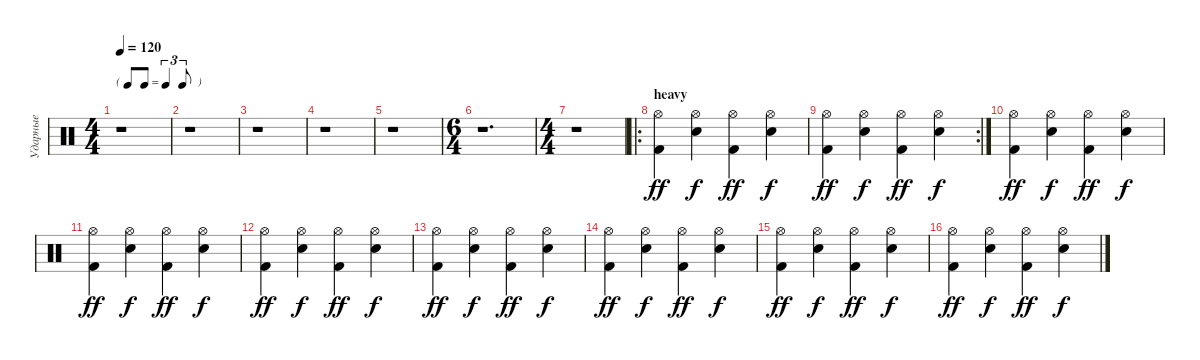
\track ("Ударные" "Ударные") {instrument percussion}
\staff {score}
\articulation defaults
\ts (4 4)
\tf triplet8th
\tempo 120
\clef neutral
\ks c
r.1{dy ff} |
r.1 |
r.1 |
r.1 |
r.1 |
\ts (6 4)
r.1{d} |
\ts (4 4)
r.1 |
\ro
\section ("" "heavy")
("Hi-Hat (open)" "Kick (hit) 2").4 ("Hi-Hat (open)" "Snare (hit) 2").4{dy f} ("Hi-Hat (open)" "Kick (hit) 2").4{dy ff} ("Hi-Hat (open)" "Snare (hit) 2").4{dy f} |
\rc 2
("Hi-Hat (open)" "Kick (hit) 2").4{dy ff} ("Hi-Hat (open)" "Snare (hit) 2").4{dy f} ("Hi-Hat (open)" "Kick (hit) 2").4{dy ff} ("Hi-Hat (open)" "Snare (hit) 2").4{dy f} |
("Hi-Hat (open)" "Kick (hit) 2").4{dy ff} ("Hi-Hat (open)" "Snare (hit) 2").4{dy f} ("Hi-Hat (open)" "Kick (hit) 2").4{dy ff} ("Hi-Hat (open)" "Snare (hit) 2").4{dy f} |
("Hi-Hat (open)" "Kick (hit) 2").4{dy ff} ("Hi-Hat (open)" "Snare (hit) 2").4{dy f} ("Hi-Hat (open)" "Kick (hit) 2").4{dy ff} ("Hi-Hat (open)" "Snare (hit) 2").4{dy f} |
("Hi-Hat (open)" "Kick (hit) 2").4{dy ff} ("Hi-Hat (open)" "Snare (hit) 2").4{dy f} ("Hi-Hat (open)" "Kick (hit) 2").4{dy ff} ("Hi-Hat (open)" "Snare (hit) 2").4{dy f} |
("Hi-Hat (open)" "Kick (hit) 2").4{dy ff} ("Hi-Hat (open)" "Snare (hit) 2").4{dy f} ("Hi-Hat (open)" "Kick (hit) 2").4{dy ff} ("Hi-Hat (open)" "Snare (hit) 2").4{dy f} |
("Hi-Hat (open)" "Kick (hit) 2").4{dy ff} ("Hi-Hat (open)" "Snare (hit) 2").4{dy f} ("Hi-Hat (open)" "Kick (hit) 2").4{dy ff} ("Hi-Hat (open)" "Snare (hit) 2").4{dy f} |
("Hi-Hat (open)" "Kick (hit) 2").4{dy ff} ("Hi-Hat (open)" "Snare (hit) 2").4{dy f} ("Hi-Hat (open)" "Kick (hit) 2").4{dy ff} ("Hi-Hat (open)" "Snare (hit) 2").4{dy f} |
("Hi-Hat (open)" "Kick (hit) 2").4{dy ff} ("Hi-Hat (open)" "Snare (hit) 2").4{dy f} ("Hi-Hat (open)" "Kick (hit) 2").4{dy ff} ("Hi-Hat (open)" "Snare (hit) 2").4{dy f}
